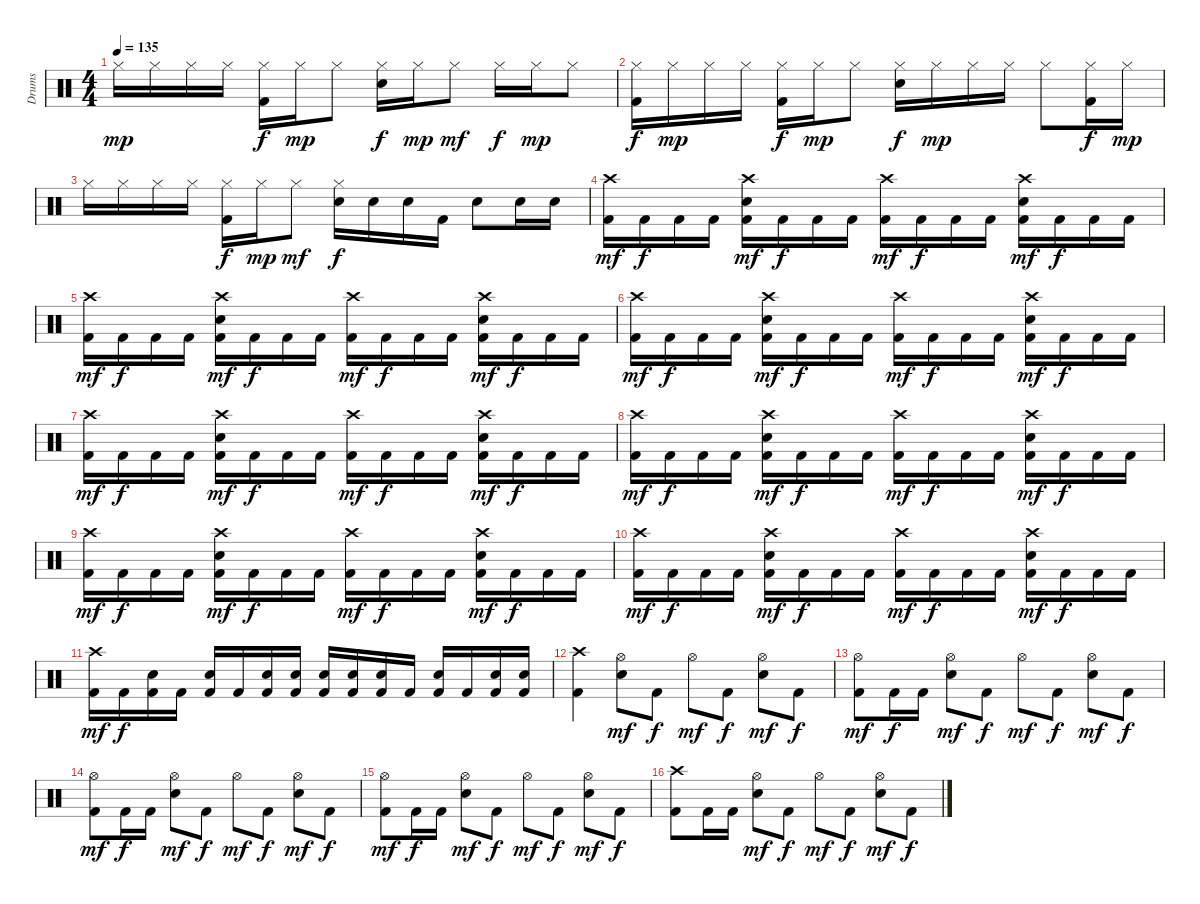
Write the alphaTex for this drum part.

\track ("Drums" "Drums") {instrument percussion}
\staff {score}
\articulation defaults
\ts (4 4)
\tempo 135
\clef neutral
\ks c "Hi-Hat (closed)".16{dy mp} "Hi-Hat (closed)".16 "Hi-Hat (closed)".16 "Hi-Hat (closed)".16
("Kick (hit) 2" "Hi-Hat (closed)").16{dy f} "Hi-Hat (closed)".16{dy mp} "Hi-Hat (closed)".8 ("Electric Snare (hit)" "Hi-Hat (closed)").16{dy f} "Hi-Hat (closed)".16{dy mp} "Hi-Hat (closed)".8{dy mf} "Hi-Hat (closed)".16{dy f} "Hi-Hat (closed)".16{dy mp} "Hi-Hat (closed)".8 |
("Kick (hit) 2" "Hi-Hat (closed)").16{dy f} "Hi-Hat (closed)".16{dy mp} "Hi-Hat (closed)".16 "Hi-Hat (closed)".16 ("Kick (hit) 2" "Hi-Hat (closed)").16{dy f} "Hi-Hat (closed)".16{dy mp} "Hi-Hat (closed)".8 ("Electric Snare (hit)" "Hi-Hat (closed)").16{dy f} "Hi-Hat (closed)".16{dy mp} "Hi-Hat (closed)".16 "Hi-Hat (closed)".16 "Hi-Hat (closed)".8 ("Kick (hit) 2" "Hi-Hat (closed)").16{dy f} "Hi-Hat (closed)".16{dy mp} |
"Hi-Hat (closed)".16 "Hi-Hat (closed)".16 "Hi-Hat (closed)".16 "Hi-Hat (closed)".16 ("Kick (hit) 2" "Hi-Hat (closed)").16{dy f} "Hi-Hat (closed)".16{dy mp} "Hi-Hat (closed)".8{dy mf} ("Electric Snare (hit)" "Hi-Hat (closed)").16{dy f} "Electric Snare (hit)".16 "Electric Snare (hit)".16 "Kick (hit) 2".16 "Electric Snare (hit)".8 "Electric Snare (hit)".16 "Electric Snare (hit)".16 |
("Kick (hit) 2" "Crash high (hit)").16{dy mf} "Kick (hit) 2".16{dy f} "Kick (hit) 2".16 "Kick (hit) 2".16 ("Kick (hit) 2" "Electric Snare (hit)" "Crash high (hit)").16{dy mf} "Kick (hit) 2".16{dy f} "Kick (hit) 2".16 "Kick (hit) 2".16 ("Kick (hit) 2" "Crash high (hit)").16{dy mf} "Kick (hit) 2".16{dy f} "Kick (hit) 2".16 "Kick (hit) 2".16 ("Kick (hit) 2" "Electric Snare (hit)" "Crash high (hit)").16{dy mf} "Kick (hit) 2".16{dy f} "Kick (hit) 2".16 "Kick (hit) 2".16 |
("Kick (hit) 2" "Crash high (hit)").16{dy mf} "Kick (hit) 2".16{dy f} "Kick (hit) 2".16 "Kick (hit) 2".16 ("Kick (hit) 2" "Electric Snare (hit)" "Crash high (hit)").16{dy mf} "Kick (hit) 2".16{dy f} "Kick (hit) 2".16 "Kick (hit) 2".16 ("Kick (hit) 2" "Crash high (hit)").16{dy mf} "Kick (hit) 2".16{dy f} "Kick (hit) 2".16 "Kick (hit) 2".16 ("Kick (hit) 2" "Electric Snare (hit)" "Crash high (hit)").16{dy mf} "Kick (hit) 2".16{dy f} "Kick (hit) 2".16 "Kick (hit) 2".16 |
("Kick (hit) 2" "Crash high (hit)").16{dy mf} "Kick (hit) 2".16{dy f} "Kick (hit) 2".16 "Kick (hit) 2".16 ("Kick (hit) 2" "Electric Snare (hit)" "Crash high (hit)").16{dy mf} "Kick (hit) 2".16{dy f} "Kick (hit) 2".16 "Kick (hit) 2".16 ("Kick (hit) 2" "Crash high (hit)").16{dy mf} "Kick (hit) 2".16{dy f} "Kick (hit) 2".16 "Kick (hit) 2".16 ("Kick (hit) 2" "Electric Snare (hit)" "Crash high (hit)").16{dy mf} "Kick (hit) 2".16{dy f} "Kick (hit) 2".16 "Kick (hit) 2".16 |
("Kick (hit) 2" "Crash high (hit)").16{dy mf} "Kick (hit) 2".16{dy f} "Kick (hit) 2".16 "Kick (hit) 2".16 ("Kick (hit) 2" "Electric Snare (hit)" "Crash high (hit)").16{dy mf} "Kick (hit) 2".16{dy f} "Kick (hit) 2".16 "Kick (hit) 2".16 ("Kick (hit) 2" "Crash high (hit)").16{dy mf} "Kick (hit) 2".16{dy f} "Kick (hit) 2".16 "Kick (hit) 2".16 ("Kick (hit) 2" "Electric Snare (hit)" "Crash high (hit)").16{dy mf} "Kick (hit) 2".16{dy f} "Kick (hit) 2".16 "Kick (hit) 2".16 |
("Kick (hit) 2" "Crash high (hit)").16{dy mf} "Kick (hit) 2".16{dy f} "Kick (hit) 2".16 "Kick (hit) 2".16 ("Kick (hit) 2" "Electric Snare (hit)" "Crash high (hit)").16{dy mf} "Kick (hit) 2".16{dy f} "Kick (hit) 2".16 "Kick (hit) 2".16 ("Kick (hit) 2" "Crash high (hit)").16{dy mf} "Kick (hit) 2".16{dy f} "Kick (hit) 2".16 "Kick (hit) 2".16 ("Kick (hit) 2" "Electric Snare (hit)" "Crash high (hit)").16{dy mf} "Kick (hit) 2".16{dy f} "Kick (hit) 2".16 "Kick (hit) 2".16 |
("Kick (hit) 2" "Crash high (hit)").16{dy mf} "Kick (hit) 2".16{dy f} "Kick (hit) 2".16 "Kick (hit) 2".16 ("Kick (hit) 2" "Electric Snare (hit)" "Crash high (hit)").16{dy mf} "Kick (hit) 2".16{dy f} "Kick (hit) 2".16 "Kick (hit) 2".16 ("Kick (hit) 2" "Crash high (hit)").16{dy mf} "Kick (hit) 2".16{dy f} "Kick (hit) 2".16 "Kick (hit) 2".16 ("Kick (hit) 2" "Electric Snare (hit)" "Crash high (hit)").16{dy mf} "Kick (hit) 2".16{dy f} "Kick (hit) 2".16 "Kick (hit) 2".16 |
("Kick (hit) 2" "Crash high (hit)").16{dy mf} "Kick (hit) 2".16{dy f} "Kick (hit) 2".16 "Kick (hit) 2".16 ("Kick (hit) 2" "Electric Snare (hit)" "Crash high (hit)").16{dy mf} "Kick (hit) 2".16{dy f} "Kick (hit) 2".16 "Kick (hit) 2".16 ("Kick (hit) 2" "Crash high (hit)").16{dy mf} "Kick (hit) 2".16{dy f} "Kick (hit) 2".16 "Kick (hit) 2".16 ("Kick (hit) 2" "Electric Snare (hit)" "Crash high (hit)").16{dy mf} "Kick (hit) 2".16{dy f} "Kick (hit) 2".16 "Kick (hit) 2".16 |
("Kick (hit) 2" "Crash high (hit)").16{dy mf} "Kick (hit) 2".16{dy f} ("Kick (hit) 2" "Electric Snare (hit)").16 "Kick (hit) 2".16 ("Kick (hit) 2" "Electric Snare (hit)").16 "Kick (hit) 2".16 ("Kick (hit) 2" "Electric Snare (hit)").16 ("Kick (hit) 2" "Electric Snare (hit)").16 ("Kick (hit) 2" "Electric Snare (hit)").16 ("Kick (hit) 2" "Electric Snare (hit)").16 ("Kick (hit) 2" "Electric Snare (hit)").16 "Kick (hit) 2".16 ("Kick (hit) 2" "Electric Snare (hit)").16 "Kick (hit) 2".16 ("Kick (hit) 2" "Electric Snare (hit)").16 ("Kick (hit) 2" "Electric Snare (hit)").16 |
("Kick (hit) 2" "Crash high (hit)").4 ("Electric Snare (hit)" "Hi-Hat (open)").8{dy mf} "Kick (hit) 2".8{dy f} "Hi-Hat (open)".8{dy mf} "Kick (hit) 2".8{dy f} ("Electric Snare (hit)" "Hi-Hat (open)").8{dy mf} "Kick (hit) 2".8{dy f} |
("Kick (hit) 2" "Hi-Hat (open)").8{dy mf} "Kick (hit) 2".16{dy f} "Kick (hit) 2".16 ("Electric Snare (hit)" "Hi-Hat (open)").8{dy mf} "Kick (hit) 2".8{dy f} "Hi-Hat (open)".8{dy mf} "Kick (hit) 2".8{dy f} ("Electric Snare (hit)" "Hi-Hat (open)").8{dy mf} "Kick (hit) 2".8{dy f} |
("Kick (hit) 2" "Hi-Hat (open)").8{dy mf} "Kick (hit) 2".16{dy f} "Kick (hit) 2".16 ("Electric Snare (hit)" "Hi-Hat (open)").8{dy mf} "Kick (hit) 2".8{dy f} "Hi-Hat (open)".8{dy mf} "Kick (hit) 2".8{dy f} ("Electric Snare (hit)" "Hi-Hat (open)").8{dy mf} "Kick (hit) 2".8{dy f} |
("Kick (hit) 2" "Hi-Hat (open)").8{dy mf} "Kick (hit) 2".16{dy f} "Kick (hit) 2".16 ("Electric Snare (hit)" "Hi-Hat (open)").8{dy mf} "Kick (hit) 2".8{dy f} "Hi-Hat (open)".8{dy mf} "Kick (hit) 2".8{dy f} ("Electric Snare (hit)" "Hi-Hat (open)").8{dy mf} "Kick (hit) 2".8{dy f} |
("Kick (hit) 2" "Crash high (hit)").8 "Kick (hit) 2".16 "Kick (hit) 2".16 ("Electric Snare (hit)" "Hi-Hat (open)").8{dy mf} "Kick (hit) 2".8{dy f} "Hi-Hat (open)".8{dy mf} "Kick (hit) 2".8{dy f} ("Electric Snare (hit)" "Hi-Hat (open)").8{dy mf} "Kick (hit) 2".8{dy f}
